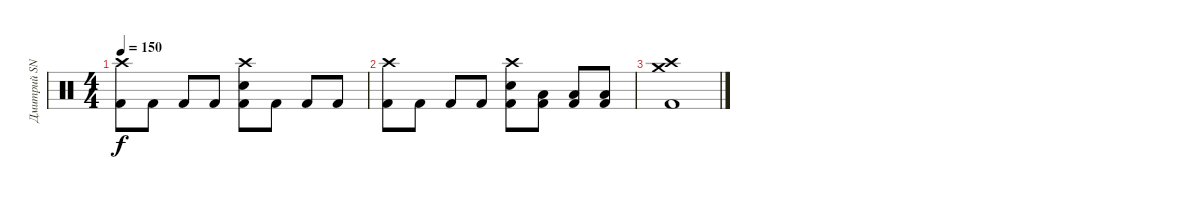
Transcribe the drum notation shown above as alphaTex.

\track ("Дмитрий SNAKE Хакимов" "Дмитрий SN") {instrument percussion}
\staff {score}
\articulation defaults
\ts (4 4)
\tempo 150
\clef neutral
\ks c
("Crash high (hit)" "Kick (hit) 2").8{dy f} "Kick (hit) 2".8 "Kick (hit) 2".8 "Kick (hit) 2".8 ("Crash high (hit)" "Snare (hit) 2" "Kick (hit) 2").8 "Kick (hit) 2".8 "Kick (hit) 2".8 "Kick (hit) 2".8 |
("Crash high (hit)" "Kick (hit) 2").8 "Kick (hit) 2".8 "Kick (hit) 2".8 "Kick (hit) 2".8 ("Crash high (hit)" "Snare (hit) 2" "Kick (hit) 2").8 ("Low Tom (hit)" "Kick (hit) 2").8 ("Low Tom (hit)" "Kick (hit) 2").8 ("Low Tom (hit)" "Kick (hit) 2").8 |
("Crash high (hit)" "Crash medium (hit)" "Kick (hit) 2").1
